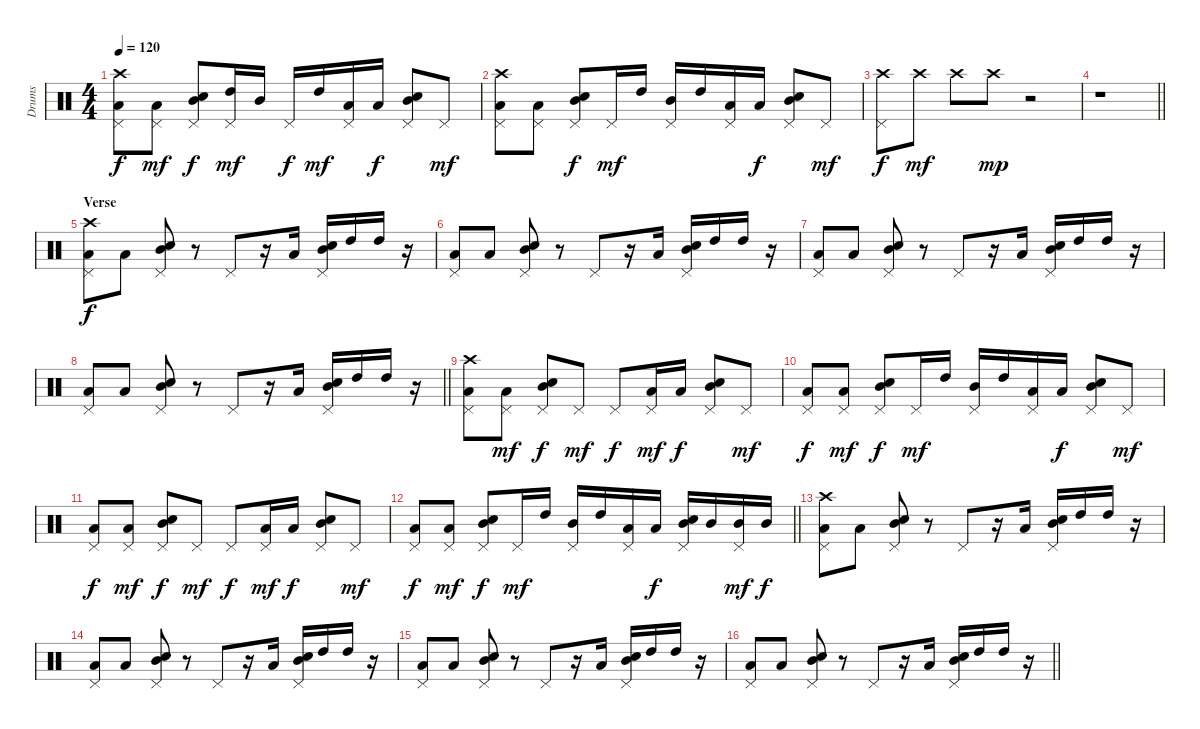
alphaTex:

\track ("Drums" "Drums") {instrument percussion}
\staff {score}
\articulation defaults
\ts (4 4)
\tempo 120
\clef neutral
\ks c
("Crash high (hit)" "Pedal Hi-Hat (hit)" "Low Tom (hit)").8{dy f} ("Pedal Hi-Hat (hit)" "Low Tom (hit)").8{dy mf} ("Pedal Hi-Hat (hit)" "Mid Tom (hit)" "Electric Snare (hit)").8{dy f} ("Pedal Hi-Hat (hit)" "High Tom (hit)").16{dy mf} "Mid Tom (hit)".16 "Pedal Hi-Hat (hit)".16{dy f} "High Tom (hit)".16{dy mf} ("Pedal Hi-Hat (hit)" "Low Tom (hit)").16 "Low Tom (hit)".16{dy f} ("Pedal Hi-Hat (hit)" "Mid Tom (hit)" "Electric Snare (hit)").8 "Pedal Hi-Hat (hit)".8{dy mf} |
("Crash high (hit)" "Pedal Hi-Hat (hit)" "Low Tom (hit)").8 ("Pedal Hi-Hat (hit)" "Low Tom (hit)").8 ("Pedal Hi-Hat (hit)" "Mid Tom (hit)" "Electric Snare (hit)").8{dy f} "Pedal Hi-Hat (hit)".16{dy mf} "High Tom (hit)".16 ("Pedal Hi-Hat (hit)" "Mid Tom (hit)").16 "High Tom (hit)".16 ("Pedal Hi-Hat (hit)" "Low Tom (hit)").16 "Low Tom (hit)".16{dy f} ("Pedal Hi-Hat (hit)" "Mid Tom (hit)" "Electric Snare (hit)").8 "Pedal Hi-Hat (hit)".8{dy mf} |
("Pedal Hi-Hat (hit)" "Crash high (hit)").8{dy f} "Crash high (hit)".8{dy mf} "Crash high (hit)".8 "Crash high (hit)".8{dy mp} r.2 |
\barLineRight lightlight
r.1 |
\section ("" "Verse")
("Crash high (hit)" "Pedal Hi-Hat (hit)" "Low Tom (hit)").8{dy f} "Low Tom (hit)".8 ("Pedal Hi-Hat (hit)" "Mid Tom (hit)" "Electric Snare (hit)").8 r.8 "Pedal Hi-Hat (hit)".8 r.16 "Low Tom (hit)".16 ("Pedal Hi-Hat (hit)" "Mid Tom (hit)" "Electric Snare (hit)").16 "High Tom (hit)".16 "High Tom (hit)".16 r.16 |
("Pedal Hi-Hat (hit)" "Low Tom (hit)").8 "Low Tom (hit)".8 ("Pedal Hi-Hat (hit)" "Mid Tom (hit)" "Electric Snare (hit)").8 r.8 "Pedal Hi-Hat (hit)".8 r.16 "Low Tom (hit)".16 ("Pedal Hi-Hat (hit)" "Mid Tom (hit)" "Electric Snare (hit)").16 "High Tom (hit)".16 "High Tom (hit)".16 r.16 |
("Pedal Hi-Hat (hit)" "Low Tom (hit)").8 "Low Tom (hit)".8 ("Pedal Hi-Hat (hit)" "Mid Tom (hit)" "Electric Snare (hit)").8 r.8 "Pedal Hi-Hat (hit)".8 r.16 "Low Tom (hit)".16 ("Pedal Hi-Hat (hit)" "Mid Tom (hit)" "Electric Snare (hit)").16 "High Tom (hit)".16 "High Tom (hit)".16 r.16 |
\barLineRight lightlight
("Pedal Hi-Hat (hit)" "Low Tom (hit)").8 "Low Tom (hit)".8 ("Pedal Hi-Hat (hit)" "Mid Tom (hit)" "Electric Snare (hit)").8 r.8 "Pedal Hi-Hat (hit)".8 r.16 "Low Tom (hit)".16 ("Pedal Hi-Hat (hit)" "Mid Tom (hit)" "Electric Snare (hit)").16 "High Tom (hit)".16 "High Tom (hit)".16 r.16 |
("Crash high (hit)" "Pedal Hi-Hat (hit)" "Low Tom (hit)").8 ("Pedal Hi-Hat (hit)" "Low Tom (hit)").8{dy mf} ("Pedal Hi-Hat (hit)" "Mid Tom (hit)" "Electric Snare (hit)").8{dy f} "Pedal Hi-Hat (hit)".8{dy mf} "Pedal Hi-Hat (hit)".8{dy f} ("Pedal Hi-Hat (hit)" "Low Tom (hit)").16{dy mf} "Low Tom (hit)".16{dy f} ("Pedal Hi-Hat (hit)" "Mid Tom (hit)" "Electric Snare (hit)").8 "Pedal Hi-Hat (hit)".8{dy mf} |
("Pedal Hi-Hat (hit)" "Low Tom (hit)").8{dy f} ("Pedal Hi-Hat (hit)" "Low Tom (hit)").8{dy mf} ("Pedal Hi-Hat (hit)" "Mid Tom (hit)" "Electric Snare (hit)").8{dy f} "Pedal Hi-Hat (hit)".16{dy mf} "High Tom (hit)".16 ("Pedal Hi-Hat (hit)" "Mid Tom (hit)").16 "High Tom (hit)".16 ("Pedal Hi-Hat (hit)" "Low Tom (hit)").16 "Low Tom (hit)".16{dy f} ("Pedal Hi-Hat (hit)" "Mid Tom (hit)" "Electric Snare (hit)").8 "Pedal Hi-Hat (hit)".8{dy mf} |
("Pedal Hi-Hat (hit)" "Low Tom (hit)").8{dy f} ("Pedal Hi-Hat (hit)" "Low Tom (hit)").8{dy mf} ("Pedal Hi-Hat (hit)" "Mid Tom (hit)" "Electric Snare (hit)").8{dy f} "Pedal Hi-Hat (hit)".8{dy mf} "Pedal Hi-Hat (hit)".8{dy f} ("Pedal Hi-Hat (hit)" "Low Tom (hit)").16{dy mf} "Low Tom (hit)".16{dy f} ("Pedal Hi-Hat (hit)" "Mid Tom (hit)" "Electric Snare (hit)").8 "Pedal Hi-Hat (hit)".8{dy mf} |
\barLineRight lightlight
("Pedal Hi-Hat (hit)" "Low Tom (hit)").8{dy f} ("Pedal Hi-Hat (hit)" "Low Tom (hit)").8{dy mf} ("Pedal Hi-Hat (hit)" "Mid Tom (hit)" "Electric Snare (hit)").8{dy f} "Pedal Hi-Hat (hit)".16{dy mf} "High Tom (hit)".16 ("Pedal Hi-Hat (hit)" "Mid Tom (hit)").16 "High Tom (hit)".16 ("Pedal Hi-Hat (hit)" "Low Tom (hit)").16 "Low Tom (hit)".16{dy f} ("Pedal Hi-Hat (hit)" "Mid Tom (hit)" "Electric Snare (hit)").16 "Mid Tom (hit)".16 ("Pedal Hi-Hat (hit)" "Mid Tom (hit)").16{dy mf} "Mid Tom (hit)".16{dy f} |
("Crash high (hit)" "Pedal Hi-Hat (hit)" "Low Tom (hit)").8 "Low Tom (hit)".8 ("Pedal Hi-Hat (hit)" "Mid Tom (hit)" "Electric Snare (hit)").8 r.8 "Pedal Hi-Hat (hit)".8 r.16 "Low Tom (hit)".16 ("Pedal Hi-Hat (hit)" "Mid Tom (hit)" "Electric Snare (hit)").16 "High Tom (hit)".16 "High Tom (hit)".16 r.16 |
("Pedal Hi-Hat (hit)" "Low Tom (hit)").8 "Low Tom (hit)".8 ("Pedal Hi-Hat (hit)" "Mid Tom (hit)" "Electric Snare (hit)").8 r.8 "Pedal Hi-Hat (hit)".8 r.16 "Low Tom (hit)".16 ("Pedal Hi-Hat (hit)" "Mid Tom (hit)" "Electric Snare (hit)").16 "High Tom (hit)".16 "High Tom (hit)".16 r.16 |
("Pedal Hi-Hat (hit)" "Low Tom (hit)").8 "Low Tom (hit)".8 ("Pedal Hi-Hat (hit)" "Mid Tom (hit)" "Electric Snare (hit)").8 r.8 "Pedal Hi-Hat (hit)".8 r.16 "Low Tom (hit)".16 ("Pedal Hi-Hat (hit)" "Mid Tom (hit)" "Electric Snare (hit)").16 "High Tom (hit)".16 "High Tom (hit)".16 r.16 |
\barLineRight lightlight
("Pedal Hi-Hat (hit)" "Low Tom (hit)").8 "Low Tom (hit)".8 ("Pedal Hi-Hat (hit)" "Mid Tom (hit)" "Electric Snare (hit)").8 r.8 "Pedal Hi-Hat (hit)".8 r.16 "Low Tom (hit)".16 ("Pedal Hi-Hat (hit)" "Mid Tom (hit)" "Electric Snare (hit)").16 "High Tom (hit)".16 "High Tom (hit)".16 r.16
